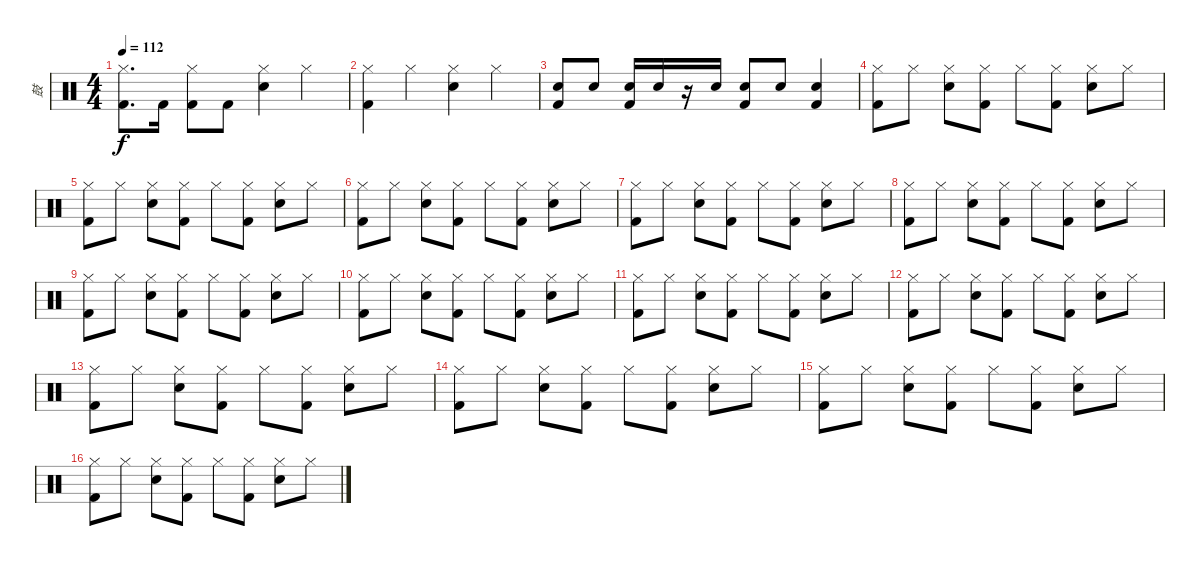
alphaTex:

\track ("鼓" "鼓") {instrument percussion}
\staff {score}
\articulation defaults
\ts (4 4)
\tempo 112
\clef neutral
\ks c
("Hi-Hat (closed)" "Kick (hit) 2").8{d dy f} "Kick (hit) 2".16 ("Hi-Hat (closed)" "Kick (hit) 2").8 "Kick (hit) 2".8 ("Hi-Hat (closed)" "Snare (hit) 2").4 "Hi-Hat (closed)".4 |
("Hi-Hat (closed)" "Kick (hit) 2").4 "Hi-Hat (closed)".4 ("Hi-Hat (closed)" "Snare (hit) 2").4 "Hi-Hat (closed)".4 |
("Snare (hit) 2" "Kick (hit) 2").8 "Snare (hit) 2".8 ("Snare (hit) 2" "Kick (hit) 2").16 "Snare (hit) 2".16 r.16 "Snare (hit) 2".16 ("Snare (hit) 2" "Kick (hit) 2").8 "Snare (hit) 2".8 ("Snare (hit) 2" "Kick (hit) 2").4 |
("Hi-Hat (closed)" "Kick (hit) 2").8 "Hi-Hat (closed)".8 ("Hi-Hat (closed)" "Snare (hit) 2").8 ("Hi-Hat (closed)" "Kick (hit) 2").8 "Hi-Hat (closed)".8 ("Hi-Hat (closed)" "Kick (hit) 2").8 ("Hi-Hat (closed)" "Snare (hit) 2").8 "Hi-Hat (closed)".8 |
("Hi-Hat (closed)" "Kick (hit) 2").8 "Hi-Hat (closed)".8 ("Hi-Hat (closed)" "Snare (hit) 2").8 ("Hi-Hat (closed)" "Kick (hit) 2").8 "Hi-Hat (closed)".8 ("Hi-Hat (closed)" "Kick (hit) 2").8 ("Hi-Hat (closed)" "Snare (hit) 2").8 "Hi-Hat (closed)".8 |
("Hi-Hat (closed)" "Kick (hit) 2").8 "Hi-Hat (closed)".8 ("Hi-Hat (closed)" "Snare (hit) 2").8 ("Hi-Hat (closed)" "Kick (hit) 2").8 "Hi-Hat (closed)".8 ("Hi-Hat (closed)" "Kick (hit) 2").8 ("Hi-Hat (closed)" "Snare (hit) 2").8 "Hi-Hat (closed)".8 |
("Hi-Hat (closed)" "Kick (hit) 2").8 "Hi-Hat (closed)".8 ("Hi-Hat (closed)" "Snare (hit) 2").8 ("Hi-Hat (closed)" "Kick (hit) 2").8 "Hi-Hat (closed)".8 ("Hi-Hat (closed)" "Kick (hit) 2").8 ("Hi-Hat (closed)" "Snare (hit) 2").8 "Hi-Hat (closed)".8 |
("Hi-Hat (closed)" "Kick (hit) 2").8 "Hi-Hat (closed)".8 ("Hi-Hat (closed)" "Snare (hit) 2").8 ("Hi-Hat (closed)" "Kick (hit) 2").8 "Hi-Hat (closed)".8 ("Hi-Hat (closed)" "Kick (hit) 2").8 ("Hi-Hat (closed)" "Snare (hit) 2").8 "Hi-Hat (closed)".8 |
("Hi-Hat (closed)" "Kick (hit) 2").8 "Hi-Hat (closed)".8 ("Hi-Hat (closed)" "Snare (hit) 2").8 ("Hi-Hat (closed)" "Kick (hit) 2").8 "Hi-Hat (closed)".8 ("Hi-Hat (closed)" "Kick (hit) 2").8 ("Hi-Hat (closed)" "Snare (hit) 2").8 "Hi-Hat (closed)".8 |
("Hi-Hat (closed)" "Kick (hit) 2").8 "Hi-Hat (closed)".8 ("Hi-Hat (closed)" "Snare (hit) 2").8 ("Hi-Hat (closed)" "Kick (hit) 2").8 "Hi-Hat (closed)".8 ("Hi-Hat (closed)" "Kick (hit) 2").8 ("Hi-Hat (closed)" "Snare (hit) 2").8 "Hi-Hat (closed)".8 |
("Hi-Hat (closed)" "Kick (hit) 2").8 "Hi-Hat (closed)".8 ("Hi-Hat (closed)" "Snare (hit) 2").8 ("Hi-Hat (closed)" "Kick (hit) 2").8 "Hi-Hat (closed)".8 ("Hi-Hat (closed)" "Kick (hit) 2").8 ("Hi-Hat (closed)" "Snare (hit) 2").8 "Hi-Hat (closed)".8 |
("Hi-Hat (closed)" "Kick (hit) 2").8 "Hi-Hat (closed)".8 ("Hi-Hat (closed)" "Snare (hit) 2").8 ("Hi-Hat (closed)" "Kick (hit) 2").8 "Hi-Hat (closed)".8 ("Hi-Hat (closed)" "Kick (hit) 2").8 ("Hi-Hat (closed)" "Snare (hit) 2").8 "Hi-Hat (closed)".8 |
("Hi-Hat (closed)" "Kick (hit) 2").8 "Hi-Hat (closed)".8 ("Hi-Hat (closed)" "Snare (hit) 2").8 ("Hi-Hat (closed)" "Kick (hit) 2").8 "Hi-Hat (closed)".8 ("Hi-Hat (closed)" "Kick (hit) 2").8 ("Hi-Hat (closed)" "Snare (hit) 2").8 "Hi-Hat (closed)".8 |
("Hi-Hat (closed)" "Kick (hit) 2").8 "Hi-Hat (closed)".8 ("Hi-Hat (closed)" "Snare (hit) 2").8 ("Hi-Hat (closed)" "Kick (hit) 2").8 "Hi-Hat (closed)".8 ("Hi-Hat (closed)" "Kick (hit) 2").8 ("Hi-Hat (closed)" "Snare (hit) 2").8 "Hi-Hat (closed)".8 |
("Hi-Hat (closed)" "Kick (hit) 2").8 "Hi-Hat (closed)".8 ("Hi-Hat (closed)" "Snare (hit) 2").8 ("Hi-Hat (closed)" "Kick (hit) 2").8 "Hi-Hat (closed)".8 ("Hi-Hat (closed)" "Kick (hit) 2").8 ("Hi-Hat (closed)" "Snare (hit) 2").8 "Hi-Hat (closed)".8 |
("Hi-Hat (closed)" "Kick (hit) 2").8 "Hi-Hat (closed)".8 ("Hi-Hat (closed)" "Snare (hit) 2").8 ("Hi-Hat (closed)" "Kick (hit) 2").8 "Hi-Hat (closed)".8 ("Hi-Hat (closed)" "Kick (hit) 2").8 ("Hi-Hat (closed)" "Snare (hit) 2").8 "Hi-Hat (closed)".8
